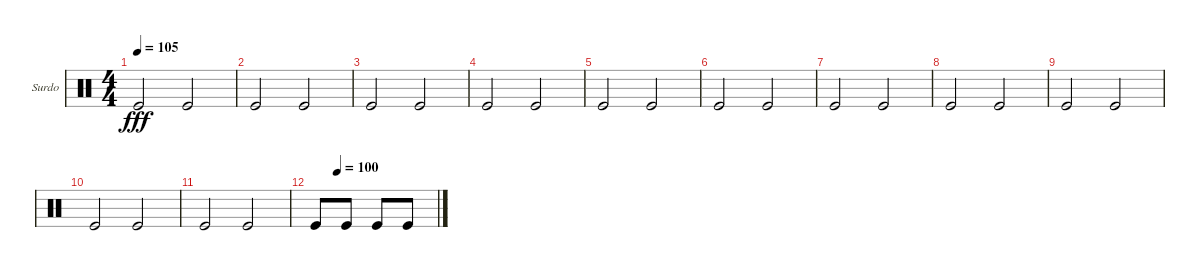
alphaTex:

\bracketExtendMode groupsimilarinstruments
\firstSystemTrackNameOrientation horizontal
\otherSystemsTrackNameOrientation horizontal
\track ("Surdo" "Surdo") {instrument percussion}
\staff {score}
\articulation defaults
\ts (4 4)
\tempo 105
\clef neutral
\scale
0.333333
\ks c "Kick (hit)".2{dy fff} "Kick (hit)".2
|
\scale
0.333333 "Kick (hit)".2 "Kick (hit)".2 |
\scale
0.333333 "Kick (hit)".2 "Kick (hit)".2 |
\scale
0.333333 "Kick (hit)".2 "Kick (hit)".2 |
\scale
0.333333 "Kick (hit)".2 "Kick (hit)".2 |
\scale
0.333333 "Kick (hit)".2 "Kick (hit)".2 |
\scale
0.333333 "Kick (hit)".2 "Kick (hit)".2 |
\scale
0.333333 "Kick (hit)".2 "Kick (hit)".2 |
\scale
0.333333 "Kick (hit)".2 "Kick (hit)".2 |
\scale
0.333333 "Kick (hit)".2 "Kick (hit)".2 |
\scale
0.333333 "Kick (hit)".2 "Kick (hit)".2 |
\tempo (100 0.1875)
\scale
0.333333 "Kick (hit)".8 "Kick (hit)".8 "Kick (hit)".8 "Kick (hit)".8 |
\scale
0.333333 |
\scale
0.333333 |
\scale
0.333333 |
\scale
0.333333
